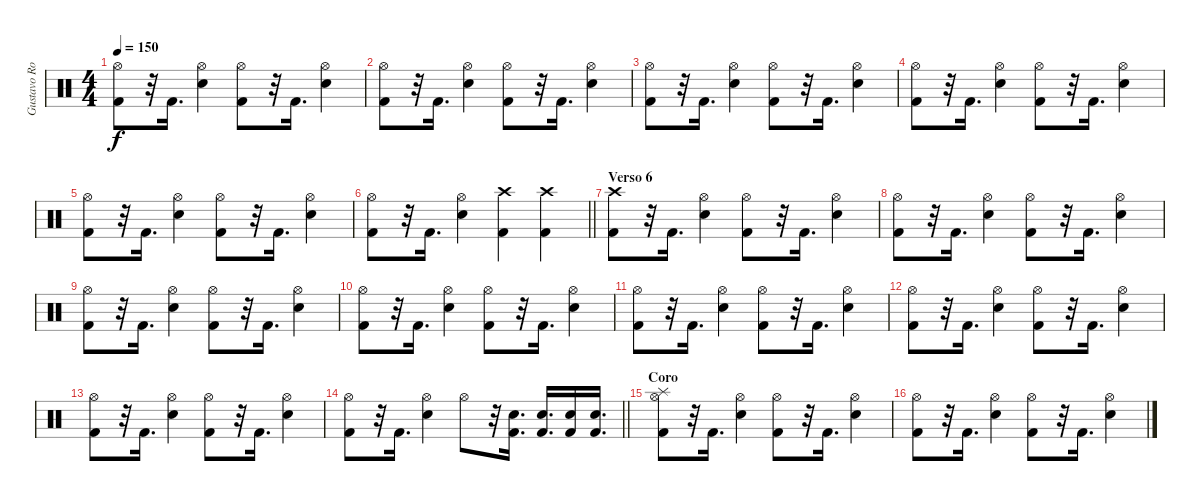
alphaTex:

\track ("Gustavo Rowek" "Gustavo Ro") {instrument percussion}
\staff {score}
\articulation defaults
\ts (4 4)
\tempo 150
\clef neutral
\ks c
("Hi-Hat (open)" "Kick (hit) 2").8{dy f} r.32 "Kick (hit) 2".16{d} ("Hi-Hat (open)" "Electric Snare (hit)").4 ("Hi-Hat (open)" "Kick (hit) 2").8 r.32 "Kick (hit) 2".16{d} ("Hi-Hat (open)" "Electric Snare (hit)").4 |
("Hi-Hat (open)" "Kick (hit) 2").8 r.32 "Kick (hit) 2".16{d} ("Hi-Hat (open)" "Electric Snare (hit)").4 ("Hi-Hat (open)" "Kick (hit) 2").8 r.32 "Kick (hit) 2".16{d} ("Hi-Hat (open)" "Electric Snare (hit)").4 |
("Hi-Hat (open)" "Kick (hit) 2").8 r.32 "Kick (hit) 2".16{d} ("Hi-Hat (open)" "Electric Snare (hit)").4 ("Hi-Hat (open)" "Kick (hit) 2").8 r.32 "Kick (hit) 2".16{d} ("Hi-Hat (open)" "Electric Snare (hit)").4 |
("Hi-Hat (open)" "Kick (hit) 2").8 r.32 "Kick (hit) 2".16{d} ("Hi-Hat (open)" "Electric Snare (hit)").4 ("Hi-Hat (open)" "Kick (hit) 2").8 r.32 "Kick (hit) 2".16{d} ("Hi-Hat (open)" "Electric Snare (hit)").4 |
("Hi-Hat (open)" "Kick (hit) 2").8 r.32 "Kick (hit) 2".16{d} ("Hi-Hat (open)" "Electric Snare (hit)").4 ("Hi-Hat (open)" "Kick (hit) 2").8 r.32 "Kick (hit) 2".16{d} ("Hi-Hat (open)" "Electric Snare (hit)").4 |
\barLineRight lightlight
("Hi-Hat (open)" "Kick (hit) 2").8 r.32 "Kick (hit) 2".16{d} ("Hi-Hat (open)" "Electric Snare (hit)").4 ("Crash high (hit)" "Kick (hit) 2").4 ("Crash high (hit)" "Kick (hit) 2").4 |
\section ("" "Verso 6")
("Crash high (hit)" "Kick (hit) 2").8 r.32 "Kick (hit) 2".16{d} ("Hi-Hat (open)" "Electric Snare (hit)").4 ("Hi-Hat (open)" "Kick (hit) 2").8 r.32 "Kick (hit) 2".16{d} ("Hi-Hat (open)" "Electric Snare (hit)").4 |
("Hi-Hat (open)" "Kick (hit) 2").8 r.32 "Kick (hit) 2".16{d} ("Hi-Hat (open)" "Electric Snare (hit)").4 ("Hi-Hat (open)" "Kick (hit) 2").8 r.32 "Kick (hit) 2".16{d} ("Hi-Hat (open)" "Electric Snare (hit)").4 |
("Hi-Hat (open)" "Kick (hit) 2").8 r.32 "Kick (hit) 2".16{d} ("Hi-Hat (open)" "Electric Snare (hit)").4 ("Hi-Hat (open)" "Kick (hit) 2").8 r.32 "Kick (hit) 2".16{d} ("Hi-Hat (open)" "Electric Snare (hit)").4 |
("Hi-Hat (open)" "Kick (hit) 2").8 r.32 "Kick (hit) 2".16{d} ("Hi-Hat (open)" "Electric Snare (hit)").4 ("Hi-Hat (open)" "Kick (hit) 2").8 r.32 "Kick (hit) 2".16{d} ("Hi-Hat (open)" "Electric Snare (hit)").4 |
("Hi-Hat (open)" "Kick (hit) 2").8 r.32 "Kick (hit) 2".16{d} ("Hi-Hat (open)" "Electric Snare (hit)").4 ("Hi-Hat (open)" "Kick (hit) 2").8 r.32 "Kick (hit) 2".16{d} ("Hi-Hat (open)" "Electric Snare (hit)").4 |
("Hi-Hat (open)" "Kick (hit) 2").8 r.32 "Kick (hit) 2".16{d} ("Hi-Hat (open)" "Electric Snare (hit)").4 ("Hi-Hat (open)" "Kick (hit) 2").8 r.32 "Kick (hit) 2".16{d} ("Hi-Hat (open)" "Electric Snare (hit)").4 |
("Hi-Hat (open)" "Kick (hit) 2").8 r.32 "Kick (hit) 2".16{d} ("Hi-Hat (open)" "Electric Snare (hit)").4 ("Hi-Hat (open)" "Kick (hit) 2").8 r.32 "Kick (hit) 2".16{d} ("Hi-Hat (open)" "Electric Snare (hit)").4 |
\barLineRight lightlight
("Hi-Hat (open)" "Kick (hit) 2").8 r.32 "Kick (hit) 2".16{d} ("Hi-Hat (open)" "Electric Snare (hit)").4 "Hi-Hat (open)".8 r.32 ("Electric Snare (hit)" "Kick (hit) 2").16{d} ("Electric Snare (hit)" "Kick (hit) 2").16{d} ("Electric Snare (hit)" "Kick (hit) 2").16 ("Electric Snare (hit)" "Kick (hit) 2").16{d} |
\section ("" "Coro")
("Splash (hit)" "Hi-Hat (open)" "Kick (hit) 2").8 r.32 "Kick (hit) 2".16{d} ("Hi-Hat (open)" "Electric Snare (hit)").4 ("Hi-Hat (open)" "Kick (hit) 2").8 r.32 "Kick (hit) 2".16{d} ("Hi-Hat (open)" "Electric Snare (hit)").4 |
("Hi-Hat (open)" "Kick (hit) 2").8 r.32 "Kick (hit) 2".16{d} ("Hi-Hat (open)" "Electric Snare (hit)").4 ("Hi-Hat (open)" "Kick (hit) 2").8 r.32 "Kick (hit) 2".16{d} ("Hi-Hat (open)" "Electric Snare (hit)").4
